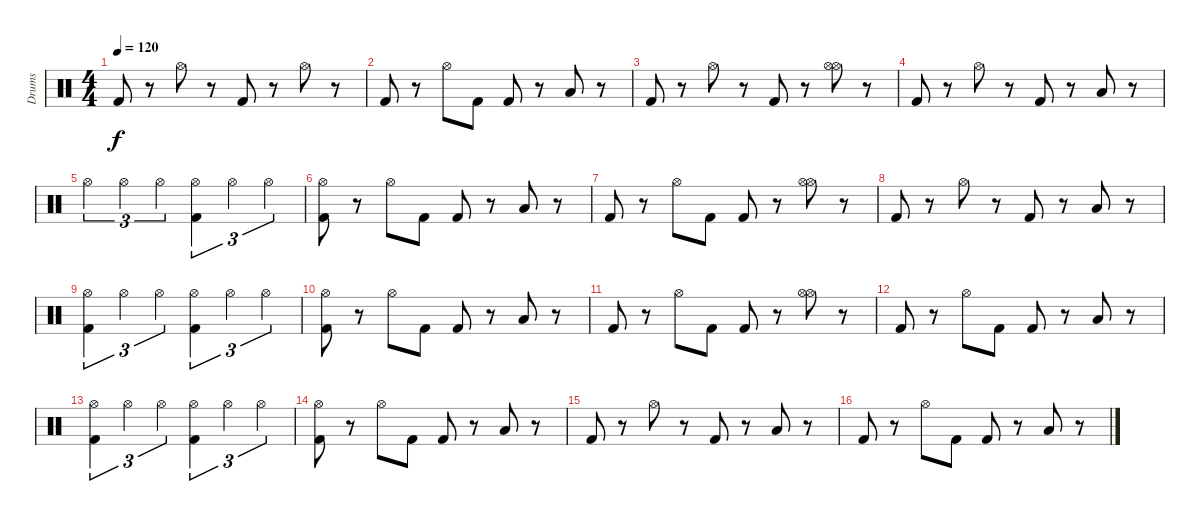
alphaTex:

\track ("Drums" "Drums") {instrument percussion}
\staff {score}
\articulation defaults
\ts (4 4)
\tempo 120
\clef neutral
\ks c "Kick (hit) 2".8{dy f}
r.8 "Hi-Hat (open)".8 r.8 "Kick (hit) 2".8 r.8 "Hi-Hat (open)".8 r.8 |
"Kick (hit) 2".8 r.8 "Hi-Hat (open)".8 "Kick (hit) 2".8 "Kick (hit) 2".8 r.8 "Low Floor Tom (hit)".8 r.8 |
"Kick (hit) 2".8 r.8 "Hi-Hat (open)".8 r.8 "Kick (hit) 2".8 r.8 ("Hi-Hat (open)" "Hi-Hat (open)").8 r.8 |
"Kick (hit) 2".8 r.8 "Hi-Hat (open)".8 r.8 "Kick (hit) 2".8 r.8 "Low Floor Tom (hit)".8 r.8 |
"Hi-Hat (open)".4{tu (3 2)} "Hi-Hat (open)".4{tu (3 2)} "Hi-Hat (open)".4{tu (3 2)} ("Hi-Hat (open)" "Kick (hit) 2").4{tu (3 2)} "Hi-Hat (open)".4{tu (3 2)} "Hi-Hat (open)".4{tu (3 2)} |
("Kick (hit) 2" "Hi-Hat (open)").8 r.8 "Hi-Hat (open)".8 "Kick (hit) 2".8 "Kick (hit) 2".8 r.8 "Low Floor Tom (hit)".8 r.8 |
"Kick (hit) 2".8 r.8 "Hi-Hat (open)".8 "Kick (hit) 2".8 "Kick (hit) 2".8 r.8 ("Hi-Hat (open)" "Hi-Hat (open)").8 r.8 |
"Kick (hit) 2".8 r.8 "Hi-Hat (open)".8 r.8 "Kick (hit) 2".8 r.8 "Low Floor Tom (hit)".8 r.8 |
("Kick (hit) 2" "Hi-Hat (open)").4{tu (3 2)} "Hi-Hat (open)".4{tu (3 2)} "Hi-Hat (open)".4{tu (3 2)} ("Kick (hit) 2" "Hi-Hat (open)").4{tu (3 2)} "Hi-Hat (open)".4{tu (3 2)} "Hi-Hat (open)".4{tu (3 2)} |
("Kick (hit) 2" "Hi-Hat (open)").8 r.8 "Hi-Hat (open)".8 "Kick (hit) 2".8 "Kick (hit) 2".8 r.8 "Low Floor Tom (hit)".8 r.8 |
"Kick (hit) 2".8 r.8 "Hi-Hat (open)".8 "Kick (hit) 2".8 "Kick (hit) 2".8 r.8 ("Hi-Hat (open)" "Hi-Hat (open)").8 r.8 |
"Kick (hit) 2".8 r.8 "Hi-Hat (open)".8 "Kick (hit) 2".8 "Kick (hit) 2".8 r.8 "Low Floor Tom (hit)".8 r.8 |
("Hi-Hat (open)" "Kick (hit) 2").4{tu (3 2)} "Hi-Hat (open)".4{tu (3 2)} "Hi-Hat (open)".4{tu (3 2)} ("Hi-Hat (open)" "Kick (hit) 2").4{tu (3 2)} "Hi-Hat (open)".4{tu (3 2)} "Hi-Hat (open)".4{tu (3 2)} |
("Hi-Hat (open)" "Kick (hit) 2").8 r.8 "Hi-Hat (open)".8 "Kick (hit) 2".8 "Kick (hit) 2".8 r.8 "Low Floor Tom (hit)".8 r.8 |
"Kick (hit) 2".8 r.8 "Hi-Hat (open)".8 r.8 "Kick (hit) 2".8 r.8 "Low Floor Tom (hit)".8 r.8 |
"Kick (hit) 2".8 r.8 "Hi-Hat (open)".8 "Kick (hit) 2".8 "Kick (hit) 2".8 r.8 "Low Floor Tom (hit)".8 r.8
